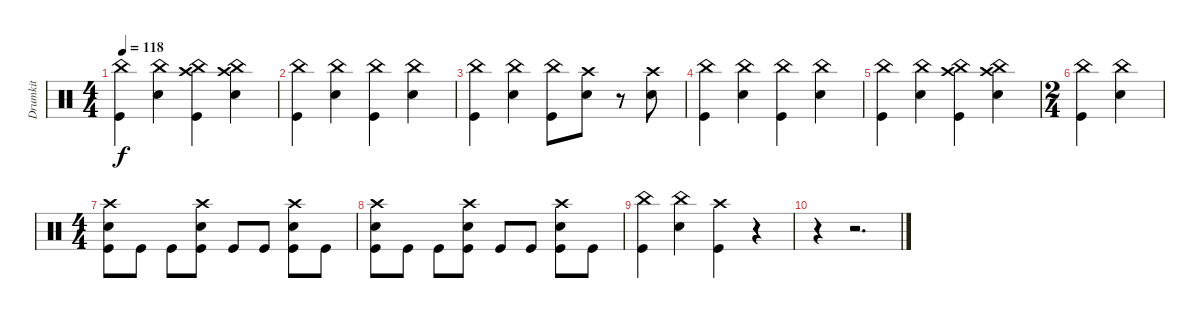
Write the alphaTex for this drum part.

\track ("Drumkit" "Drumkit") {instrument percussion}
\staff {score}
\articulation defaults
\ts (4 4)
\tempo 118
\clef neutral
\ks c
("China (hit)" "Kick (hit)").4{dy f} ("China (hit)" "Snare (hit) 2").4 ("China (hit)" "Kick (hit)" "Crash high (hit)").4 ("China (hit)" "Snare (hit) 2" "Crash high (hit)").4 |
("China (hit)" "Kick (hit)").4 ("China (hit)" "Snare (hit) 2").4 ("China (hit)" "Kick (hit)").4 ("China (hit)" "Snare (hit) 2").4 |
("China (hit)" "Kick (hit)").4 ("China (hit)" "Snare (hit) 2").4 ("China (hit)" "Kick (hit)").8 ("Snare (hit) 2" "Crash high (hit)").8 r.8 ("Snare (hit) 2" "Crash high (hit)").8 |
("China (hit)" "Kick (hit)").4 ("China (hit)" "Snare (hit) 2").4 ("China (hit)" "Kick (hit)").4 ("China (hit)" "Snare (hit) 2").4 |
("China (hit)" "Kick (hit)").4 ("China (hit)" "Snare (hit) 2").4 ("China (hit)" "Kick (hit)" "Crash high (hit)").4 ("China (hit)" "Snare (hit) 2" "Crash high (hit)").4 |
\ts (2 4)
("China (hit)" "Kick (hit)").4 ("China (hit)" "Snare (hit) 2").4 |
\ts (4 4)
("Crash high (hit)" "Kick (hit)" "Snare (hit) 2").8 "Kick (hit)".8 "Kick (hit)".8 ("Crash high (hit)" "Kick (hit)" "Snare (hit) 2").8 "Kick (hit)".8 "Kick (hit)".8 ("Crash high (hit)" "Kick (hit)" "Snare (hit) 2").8 "Kick (hit)".8 |
("Crash high (hit)" "Kick (hit)" "Snare (hit) 2").8 "Kick (hit)".8 "Kick (hit)".8 ("Crash high (hit)" "Kick (hit)" "Snare (hit) 2").8 "Kick (hit)".8 "Kick (hit)".8 ("Crash high (hit)" "Kick (hit)" "Snare (hit) 2").8 "Kick (hit)".8 |
("China (hit)" "Kick (hit)").4 ("China (hit)" "Snare (hit) 2").4 ("Crash high (hit)" "Kick (hit)").4 r.4 |
r.4 r.2{d}
